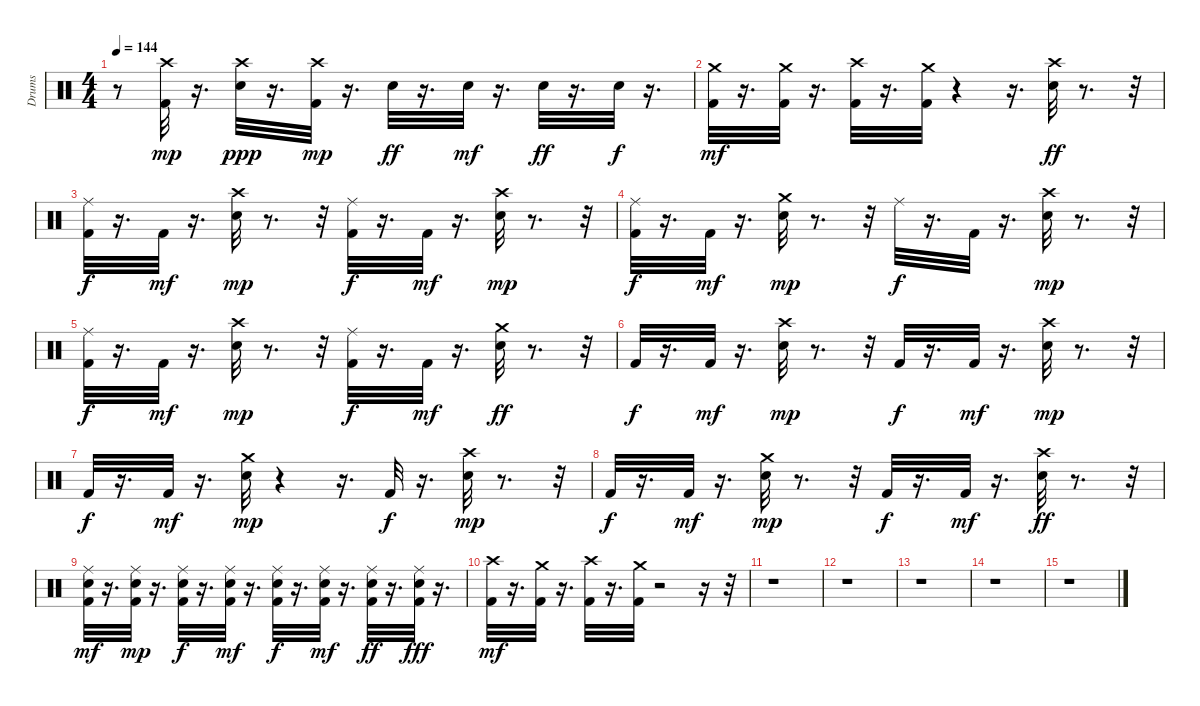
\track ("Drums" "Drums") {instrument percussion}
\staff {score}
\articulation defaults
\ts (4 4)
\tempo 144
\clef neutral
\ks c
r.8{dy mp} ("Crash high (hit)" "Kick (hit) 2").32 r.16{d} ("Crash high (hit)" "Snare (hit) 2").32{dy ppp} r.16{d} ("Crash high (hit)" "Kick (hit) 2").32{dy mp} r.16{d} "Snare (hit) 2".32{dy ff} r.16{d} "Snare (hit) 2".32{dy mf} r.16{d} "Snare (hit) 2".32{dy ff} r.16{d} "Snare (hit) 2".32{dy f} r.16{d} |
("Crash medium (hit)" "Kick (hit) 2").32{dy mf} r.16{d} ("Kick (hit) 2" "Crash medium (hit)").32 r.16{d} ("Crash high (hit)" "Kick (hit) 2").32 r.16{d} ("Crash medium (hit)" "Kick (hit) 2").32 r.4 r.16{d} ("Crash high (hit)" "Snare (hit) 2").32{dy ff} r.8{d} r.32 |
("Ride (middle)" "Kick (hit) 2").32{dy f} r.16{d} "Kick (hit) 2".32{dy mf} r.16{d} ("Crash high (hit)" "Snare (hit) 2").32{dy mp} r.8{d} r.32 ("Ride (middle)" "Kick (hit) 2").32{dy f} r.16{d} "Kick (hit) 2".32{dy mf} r.16{d} ("Crash high (hit)" "Snare (hit) 2").32{dy mp} r.8{d} r.32 |
("Ride (middle)" "Kick (hit) 2").32{dy f} r.16{d} "Kick (hit) 2".32{dy mf} r.16{d} ("Crash medium (hit)" "Snare (hit) 2").32{dy mp} r.8{d} r.32 "Ride (middle)".32{dy f} r.16{d} "Kick (hit) 2".32 r.16{d} ("Crash high (hit)" "Snare (hit) 2").32{dy mp} r.8{d} r.32 |
("Ride (middle)" "Kick (hit) 2").32{dy f} r.16{d} "Kick (hit) 2".32{dy mf} r.16{d} ("Crash high (hit)" "Snare (hit) 2").32{dy mp} r.8{d} r.32 ("Ride (middle)" "Kick (hit) 2").32{dy f} r.16{d} "Kick (hit) 2".32{dy mf} r.16{d} ("Crash medium (hit)" "Snare (hit) 2").32{dy ff} r.8{d} r.32 |
"Kick (hit) 2".32{dy f} r.16{d} "Kick (hit) 2".32{dy mf} r.16{d} ("Snare (hit) 2" "Crash high (hit)").32{dy mp} r.8{d} r.32 "Kick (hit) 2".32{dy f} r.16{d} "Kick (hit) 2".32{dy mf} r.16{d} ("Crash high (hit)" "Snare (hit) 2").32{dy mp} r.8{d} r.32 |
"Kick (hit) 2".32{dy f} r.16{d} "Kick (hit) 2".32{dy mf} r.16{d} ("Crash medium (hit)" "Snare (hit) 2").32{dy mp} r.4 r.16{d} "Kick (hit) 2".32{dy f} r.16{d} ("Crash high (hit)" "Snare (hit) 2").32{dy mp} r.8{d} r.32 |
"Kick (hit) 2".32{dy f} r.16{d} "Kick (hit) 2".32{dy mf} r.16{d} ("Crash medium (hit)" "Snare (hit) 2").32{dy mp} r.8{d} r.32 "Kick (hit) 2".32{dy f} r.16{d} "Kick (hit) 2".32{dy mf} r.16{d} ("Crash high (hit)" "Snare (hit) 2").32{dy ff} r.8{d} r.32 |
("Kick (hit) 2" "Snare (hit) 2" "Ride (middle)").32{dy mf} r.16{d} ("Kick (hit) 2" "Snare (hit) 2" "Ride (middle)").32{dy mp} r.16{d} ("Kick (hit) 2" "Snare (hit) 2" "Ride (middle)").32{dy f} r.16{d} ("Kick (hit) 2" "Snare (hit) 2" "Ride (middle)").32{dy mf} r.16{d} ("Kick (hit) 2" "Snare (hit) 2" "Ride (middle)").32{dy f} r.16{d} ("Kick (hit) 2" "Ride (middle)" "Snare (hit) 2").32{dy mf} r.16{d} ("Kick (hit) 2" "Snare (hit) 2" "Ride (middle)").32{dy ff} r.16{d} ("Kick (hit) 2" "Snare (hit) 2" "Ride (middle)").32{dy fff} r.16{d} |
("Crash high (hit)" "Kick (hit) 2").32{dy mf} r.16{d} ("Crash medium (hit)" "Kick (hit) 2").32 r.16{d} ("Crash high (hit)" "Kick (hit) 2").32 r.16{d} ("Kick (hit) 2" "Crash medium (hit)").32 r.2 r.16 r.32 |
r.1 |
r.1 |
r.1 |
r.1 |
r.1
